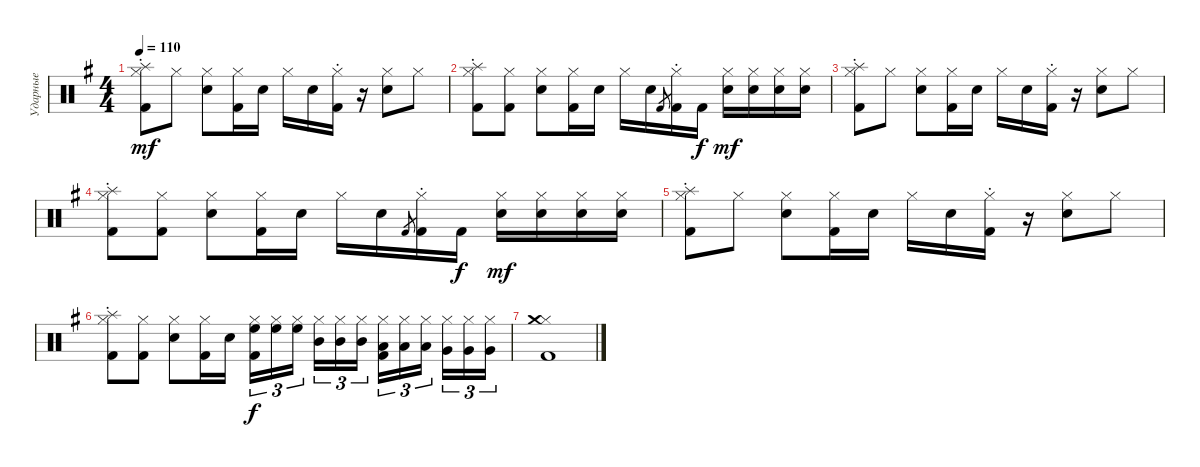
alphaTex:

\track ("Ударные" "Ударные") {instrument percussion}
\staff {score}
\articulation defaults
\ts (4 4)
\tempo 110
\clef neutral
\ks eminor
("Hi-Hat (closed)" "Splash (hit)" "Kick (hit) 2"{st}).8{dy mf} "Hi-Hat (closed)".8 ("Hi-Hat (closed)" "Snare (hit) 2").8 ("Hi-Hat (closed)" "Kick (hit) 2").16 "Snare (hit) 2".16 "Hi-Hat (closed)".16 "Snare (hit) 2".16 ("Hi-Hat (closed)" "Kick (hit) 2"{st}).16 r.16 ("Hi-Hat (closed)" "Snare (hit) 2").8 "Hi-Hat (closed)".8 |
("Hi-Hat (closed)" "Splash (hit)" "Kick (hit) 2"{st}).8 ("Hi-Hat (closed)" "Kick (hit) 2").8 ("Hi-Hat (closed)" "Snare (hit) 2").8 ("Hi-Hat (closed)" "Kick (hit) 2").16 "Snare (hit) 2".16 "Hi-Hat (closed)".16 "Snare (hit) 2".16 "Kick (hit) 2".8{gr} ("Hi-Hat (closed)" "Kick (hit) 2"{st}).16 "Kick (hit) 2".16{dy f} ("Hi-Hat (closed)" "Snare (hit) 2").16{dy mf} ("Hi-Hat (closed)" "Snare (hit) 2").16 ("Hi-Hat (closed)" "Snare (hit) 2").16 ("Hi-Hat (closed)" "Snare (hit) 2").16 |
("Hi-Hat (closed)" "Splash (hit)" "Kick (hit) 2"{st}).8 "Hi-Hat (closed)".8 ("Hi-Hat (closed)" "Snare (hit) 2").8 ("Hi-Hat (closed)" "Kick (hit) 2").16 "Snare (hit) 2".16 "Hi-Hat (closed)".16 "Snare (hit) 2".16 ("Hi-Hat (closed)" "Kick (hit) 2"{st}).16 r.16 ("Hi-Hat (closed)" "Snare (hit) 2").8 "Hi-Hat (closed)".8 |
("Hi-Hat (closed)" "Splash (hit)" "Kick (hit) 2"{st}).8 ("Hi-Hat (closed)" "Kick (hit) 2").8 ("Hi-Hat (closed)" "Snare (hit) 2").8 ("Hi-Hat (closed)" "Kick (hit) 2").16 "Snare (hit) 2".16 "Hi-Hat (closed)".16 "Snare (hit) 2".16 "Kick (hit) 2".8{gr} ("Hi-Hat (closed)" "Kick (hit) 2"{st}).16 "Kick (hit) 2".16{dy f} ("Hi-Hat (closed)" "Snare (hit) 2").16{dy mf} ("Hi-Hat (closed)" "Snare (hit) 2").16 ("Hi-Hat (closed)" "Snare (hit) 2").16 ("Hi-Hat (closed)" "Snare (hit) 2").16 |
("Hi-Hat (closed)" "Splash (hit)" "Kick (hit) 2"{st}).8 "Hi-Hat (closed)".8 ("Hi-Hat (closed)" "Snare (hit) 2").8 ("Hi-Hat (closed)" "Kick (hit) 2").16 "Snare (hit) 2".16 "Hi-Hat (closed)".16 "Snare (hit) 2".16 ("Hi-Hat (closed)" "Kick (hit) 2"{st}).16 r.16 ("Hi-Hat (closed)" "Snare (hit) 2").8 "Hi-Hat (closed)".8 |
("Hi-Hat (closed)" "Splash (hit)" "Kick (hit) 2"{st}).8 ("Hi-Hat (closed)" "Kick (hit) 2").8 ("Hi-Hat (closed)" "Snare (hit) 2").8 ("Hi-Hat (closed)" "Kick (hit) 2").16 "Snare (hit) 2".16 ("Hi-Hat (closed)" "High Floor Tom (hit)" "Kick (hit) 2").16{tu (3 2) dy f} ("Hi-Hat (closed)" "High Floor Tom (hit)").16{tu (3 2)} ("Hi-Hat (closed)" "High Floor Tom (hit)").16{tu (3 2) beam splitsecondary} ("Hi-Hat (closed)" "Mid Tom (hit)").16{tu (3 2)} ("Hi-Hat (closed)" "Mid Tom (hit)").16{tu (3 2)} ("Hi-Hat (closed)" "Mid Tom (hit)").16{tu (3 2)} ("Hi-Hat (closed)" "Low Tom (hit)" "Kick (hit) 2").16{tu (3 2)} ("Hi-Hat (closed)" "Low Tom (hit)").16{tu (3 2)} ("Hi-Hat (closed)" "Low Tom (hit)").16{tu (3 2) beam splitsecondary} ("Hi-Hat (closed)" "Very Low Tom (hit)").16{tu (3 2)} ("Hi-Hat (closed)" "Very Low Tom (hit)").16{tu (3 2)} ("Hi-Hat (closed)" "Very Low Tom (hit)").16{tu (3 2)} |
("Hi-Hat (closed)" "Crash medium (hit)" "Kick (hit) 2").1
